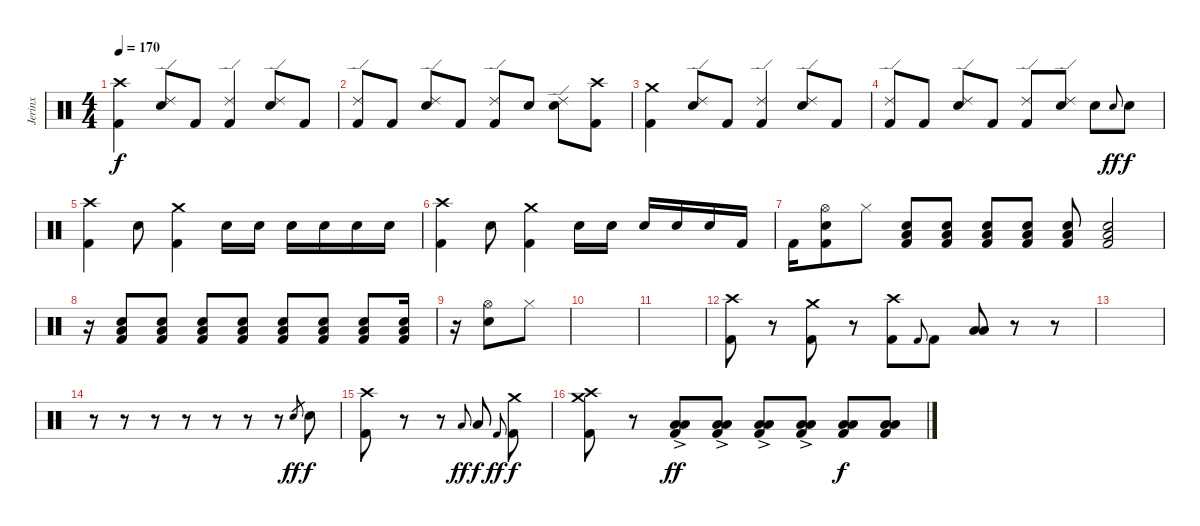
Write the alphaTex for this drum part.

\track ("Jerinx" "Jerinx") {instrument percussion}
\staff {score}
\articulation defaults
\ts (4 4)
\tempo 170
\clef neutral
\ks c
("Kick (hit) 2" "Crash high (hit)").4{dy f} ("Electric Snare (hit)" "Ride (edge) 2").8 "Kick (hit) 2".8 ("Kick (hit) 2" "Ride (edge) 2").4 ("Electric Snare (hit)" "Ride (edge) 2").8 "Kick (hit) 2".8 |
("Kick (hit) 2" "Ride (edge) 2").8 "Kick (hit) 2".8 ("Electric Snare (hit)" "Ride (edge) 2").8 "Kick (hit) 2".8 ("Kick (hit) 2" "Ride (edge) 2").8 "Electric Snare (hit)".8 ("Electric Snare (hit)" "Ride (edge) 2").8 ("Kick (hit) 2" "Crash high (hit)").8 |
("Kick (hit) 2" "Crash medium (hit)").4 ("Electric Snare (hit)" "Ride (edge) 2").8 "Kick (hit) 2".8 ("Kick (hit) 2" "Ride (edge) 2").4 ("Electric Snare (hit)" "Ride (edge) 2").8 "Kick (hit) 2".8 |
("Kick (hit) 2" "Ride (edge) 2").8 "Kick (hit) 2".8 ("Electric Snare (hit)" "Ride (edge) 2").8 "Kick (hit) 2".8 ("Kick (hit) 2" "Ride (edge) 2").8 ("Electric Snare (hit)" "Ride (edge) 2").8 "Electric Snare (hit)".8 "Electric Snare (hit)"{h}.8{gr onbeat dy ff} "Electric Snare (hit)".8{dy f} |
("Kick (hit) 2" "Crash high (hit)").4 "Electric Snare (hit)".8 ("Kick (hit) 2" "Crash medium (hit)").4 "Electric Snare (hit)".16 "Electric Snare (hit)".16 "Electric Snare (hit)".16 "Electric Snare (hit)".16 "Electric Snare (hit)".16 "Electric Snare (hit)".16 |
("Kick (hit) 2" "Crash high (hit)").4 "Electric Snare (hit)".8 ("Kick (hit) 2" "Crash medium (hit)").4 "Electric Snare (hit)".16 "Electric Snare (hit)".16 "Electric Snare (hit)".16 "Electric Snare (hit)".16 "Electric Snare (hit)".16 "Kick (hit) 2".16 |
"Kick (hit) 2".16 ("Kick (hit) 2" "Electric Snare (hit)" "Hi-Hat (open)").8 "Hi-Hat (closed)".8 ("Kick (hit) 2" "Electric Snare (hit)" "Low Floor Tom (hit)").8 ("Kick (hit) 2" "Electric Snare (hit)" "Low Floor Tom (hit)").8 ("Kick (hit) 2" "Electric Snare (hit)" "Low Floor Tom (hit)").8 ("Kick (hit) 2" "Electric Snare (hit)" "Low Floor Tom (hit)").8 ("Kick (hit) 2" "Electric Snare (hit)" "Low Floor Tom (hit)").8 ("Kick (hit) 2" "Electric Snare (hit)" "Low Floor Tom (hit)").2 |
r.16 ("Kick (hit) 2" "Electric Snare (hit)" "Low Floor Tom (hit)").8 ("Kick (hit) 2" "Electric Snare (hit)" "Low Floor Tom (hit)").8 ("Kick (hit) 2" "Electric Snare (hit)" "Low Floor Tom (hit)").8 ("Kick (hit) 2" "Electric Snare (hit)" "Low Floor Tom (hit)").8 ("Kick (hit) 2" "Electric Snare (hit)" "Low Floor Tom (hit)").8 ("Kick (hit) 2" "Electric Snare (hit)" "Low Floor Tom (hit)").8 ("Kick (hit) 2" "Electric Snare (hit)" "Low Floor Tom (hit)").8 ("Kick (hit) 2" "Electric Snare (hit)" "Low Floor Tom (hit)").16 |
r.16 ("Electric Snare (hit)" "Hi-Hat (open)").8 "Hi-Hat (closed)".8 |
|
|
("Kick (hit) 2" "Crash high (hit)").8 r.8 ("Kick (hit) 2" "Crash medium (hit)").8 r.8 ("Kick (hit) 2" "Crash high (hit)").8 "Kick (hit) 2".8{gr onbeat} "Kick (hit) 2".8 ("Low Floor Tom (hit)" "Low Tom (hit)").8 r.8 r.8 |
|
r.8 r.8 r.8 r.8 r.8 r.8 r.8 "Electric Snare (hit)".8{gr dy ff} "Electric Snare (hit)".8{dy f} |
("Kick (hit) 2" "Crash high (hit)").8 r.8 r.8 "Low Floor Tom (hit)".8{gr onbeat dy ff} "Low Floor Tom (hit)".8{dy f} "Kick (hit) 2".8{gr onbeat dy ff} ("Kick (hit) 2" "Crash medium (hit)").8{dy f} |
("Kick (hit) 2" "Crash high (hit)" "Crash medium (hit)").8 r.8 ("Kick (hit) 2"{ac} "Low Floor Tom (hit)"{ac} "Low Tom (hit)"{ac}).8{dy ff} ("Kick (hit) 2"{ac} "Low Floor Tom (hit)"{ac} "Low Tom (hit)"{ac}).8 ("Kick (hit) 2"{ac} "Low Floor Tom (hit)"{ac} "Low Tom (hit)"{ac}).8 ("Kick (hit) 2"{ac} "Low Floor Tom (hit)"{ac} "Low Tom (hit)"{ac}).8 ("Kick (hit) 2" "Low Floor Tom (hit)" "Low Tom (hit)").8{dy f} ("Kick (hit) 2" "Low Floor Tom (hit)" "Low Tom (hit)").8
